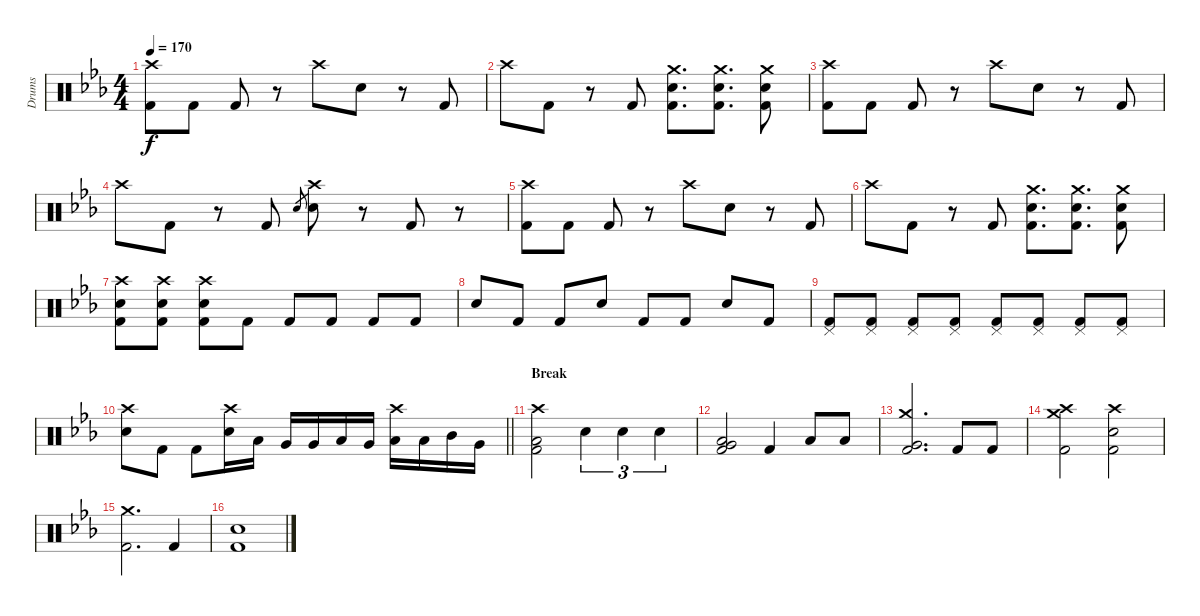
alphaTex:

\track ("Drums" "Drums") {instrument percussion}
\staff {score}
\articulation defaults
\ts (4 4)
\tempo 170
\clef neutral
\ks cminor
("Crash high (hit)" "Kick (hit) 2").8{dy f} "Kick (hit) 2".8 "Kick (hit) 2".8 r.8 "Crash high (hit)".8 "Electric Snare (hit)".8 r.8 "Kick (hit) 2".8 |
"Crash high (hit)".8 "Kick (hit) 2".8 r.8 "Kick (hit) 2".8 ("Crash medium (hit)" "Electric Snare (hit)" "Kick (hit) 2").8{d} ("Crash medium (hit)" "Electric Snare (hit)" "Kick (hit) 2").8{d} ("Crash medium (hit)" "Electric Snare (hit)" "Kick (hit) 2").8 |
("Crash high (hit)" "Kick (hit) 2").8 "Kick (hit) 2".8 "Kick (hit) 2".8 r.8 "Crash high (hit)".8 "Electric Snare (hit)".8 r.8 "Kick (hit) 2".8 |
"Crash high (hit)".8 "Kick (hit) 2".8 r.8 "Kick (hit) 2".8 "Electric Snare (hit)".8{gr} ("Crash high (hit)" "Electric Snare (hit)").8 r.8 "Kick (hit) 2".8 r.8 |
("Crash high (hit)" "Kick (hit) 2").8 "Kick (hit) 2".8 "Kick (hit) 2".8 r.8 "Crash high (hit)".8 "Electric Snare (hit)".8 r.8 "Kick (hit) 2".8 |
"Crash high (hit)".8 "Kick (hit) 2".8 r.8 "Kick (hit) 2".8 ("Crash medium (hit)" "Electric Snare (hit)" "Kick (hit) 2").8{d} ("Crash medium (hit)" "Electric Snare (hit)" "Kick (hit) 2").8{d} ("Crash medium (hit)" "Electric Snare (hit)" "Kick (hit) 2").8 |
("Crash high (hit)" "Electric Snare (hit)" "Kick (hit) 2").8 ("Crash high (hit)" "Electric Snare (hit)" "Kick (hit) 2").8 ("Crash high (hit)" "Electric Snare (hit)" "Kick (hit) 2").8 "Kick (hit) 2".8 "Kick (hit) 2".8 "Kick (hit) 2".8 "Kick (hit) 2".8 "Kick (hit) 2".8 |
"Electric Snare (hit)".8 "Kick (hit) 2".8 "Kick (hit) 2".8 "Electric Snare (hit)".8 "Kick (hit) 2".8 "Kick (hit) 2".8 "Electric Snare (hit)".8 "Kick (hit) 2".8 |
("Pedal Hi-Hat (hit)" "Kick (hit) 2").8 ("Pedal Hi-Hat (hit)" "Kick (hit) 2").8 ("Pedal Hi-Hat (hit)" "Kick (hit) 2").8 ("Pedal Hi-Hat (hit)" "Kick (hit) 2").8 ("Pedal Hi-Hat (hit)" "Kick (hit) 2").8 ("Pedal Hi-Hat (hit)" "Kick (hit) 2").8 ("Pedal Hi-Hat (hit)" "Kick (hit) 2").8 ("Pedal Hi-Hat (hit)" "Kick (hit) 2").8 |
\barLineRight lightlight
("Crash high (hit)" "Electric Snare (hit)").8 "Kick (hit) 2".8 "Kick (hit) 2".8 ("Crash high (hit)" "Electric Snare (hit)").16 "Low Tom (hit)".16 "Very Low Tom (hit)".16 "Very Low Tom (hit)".16 "Low Tom (hit)".16 "Very Low Tom (hit)".16 ("Crash high (hit)" "Low Floor Tom (hit)").16 "Low Tom (hit)".16 "Mid Tom (hit)".16 "Very Low Tom (hit)".16 |
\section ("" "Break")
("Crash high (hit)" "Low Floor Tom (hit)" "Kick (hit) 2").2 "Electric Snare (hit)".4{tu (3 2)} "Electric Snare (hit)".4{tu (3 2)} "Electric Snare (hit)".4{tu (3 2)} |
("Very Low Tom (hit)" "Low Tom (hit)" "Kick (hit) 2").2 "Kick (hit) 2".4 "Low Tom (hit)".8 "Low Tom (hit)".8 |
("Crash medium (hit)" "Very Low Tom (hit)" "Kick (hit) 2").2{d} "Kick (hit) 2".8 "Kick (hit) 2".8 |
("Crash high (hit)" "Crash medium (hit)" "Kick (hit) 2").2 ("Crash high (hit)" "Electric Snare (hit)" "Kick (hit) 2").2 |
("Crash medium (hit)" "Kick (hit) 2").2{d} "Kick (hit) 2".4 |
("Electric Snare (hit)" "Kick (hit) 2").1
